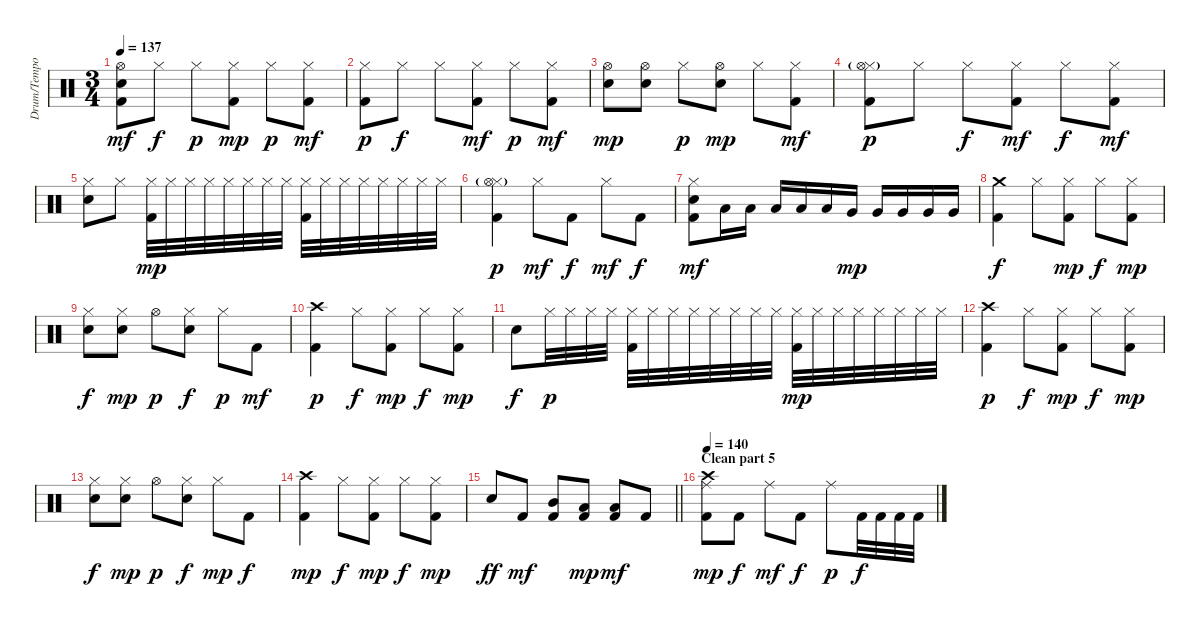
\track ("Drum/Tempo" "Drum/Tempo") {instrument percussion}
\staff {score}
\articulation defaults
\ts (3 4)
\tempo 137
\clef neutral
\ks c
("Kick (hit) 2" "Electric Snare (hit)" "Hi-Hat (open)").8{dy mf} "Hi-Hat (closed)".8{dy f} "Hi-Hat (closed)".8{dy p} ("Kick (hit) 2" "Hi-Hat (closed)").8{dy mp} "Hi-Hat (closed)".8{dy p} ("Kick (hit) 2" "Hi-Hat (closed)").8{dy mf} |
("Kick (hit) 2" "Hi-Hat (closed)").8{dy p} "Hi-Hat (closed)".8{dy f} "Hi-Hat (closed)".8 ("Kick (hit) 2" "Hi-Hat (closed)").8{dy mf} "Hi-Hat (closed)".8{dy p} ("Kick (hit) 2" "Hi-Hat (closed)").8{dy mf} |
("Electric Snare (hit)" "Hi-Hat (open)").8{dy mp} ("Electric Snare (hit)" "Hi-Hat (open)").8 "Hi-Hat (closed)".8{dy p} ("Electric Snare (hit)" "Hi-Hat (open)").8{dy mp} "Hi-Hat (closed)".8 ("Kick (hit) 2" "Hi-Hat (closed)").8{dy mf} |
("Kick (hit) 2" "Hi-Hat (closed)" "Hi-Hat (open)"{g}).8{dy p} "Hi-Hat (closed)".8 "Hi-Hat (closed)".8{dy f} ("Kick (hit) 2" "Hi-Hat (closed)").8{dy mf} "Hi-Hat (closed)".8{dy f} ("Kick (hit) 2" "Hi-Hat (closed)").8{dy mf} |
("Electric Snare (hit)" "Hi-Hat (closed)").8 "Hi-Hat (closed)".8 ("Kick (hit) 2" "Hi-Hat (closed)").32{dy mp} "Hi-Hat (closed)".32 "Hi-Hat (closed)".32 "Hi-Hat (closed)".32 "Hi-Hat (closed)".32 "Hi-Hat (closed)".32 "Hi-Hat (closed)".32 "Hi-Hat (closed)".32 ("Kick (hit) 2" "Hi-Hat (closed)").32 "Hi-Hat (closed)".32 "Hi-Hat (closed)".32 "Hi-Hat (closed)".32 "Hi-Hat (closed)".32 "Hi-Hat (closed)".32 "Hi-Hat (closed)".32 "Hi-Hat (closed)".32 |
("Kick (hit) 2" "Hi-Hat (closed)" "Hi-Hat (open)"{g}).4{dy p} "Hi-Hat (closed)".8{dy mf} "Kick (hit) 2".8{dy f} "Hi-Hat (closed)".8{dy mf} "Kick (hit) 2".8{dy f} |
("Kick (hit) 2" "Electric Snare (hit)" "Hi-Hat (closed)").8{dy mf} "Low Tom (hit)".16 "Low Tom (hit)".16 "Low Tom (hit)".16 "Low Tom (hit)".16 "Low Tom (hit)".16 "Very Low Tom (hit)".16{dy mp} "Very Low Tom (hit)".16 "Very Low Tom (hit)".16 "Very Low Tom (hit)".16 "Very Low Tom (hit)".16 |
("Kick (hit) 2" "Crash medium (hit)").4{dy f} "Hi-Hat (closed)".8 ("Kick (hit) 2" "Hi-Hat (closed)").8{dy mp} "Hi-Hat (closed)".8{dy f} ("Kick (hit) 2" "Hi-Hat (closed)").8{dy mp} |
("Electric Snare (hit)" "Hi-Hat (closed)").8{dy f} ("Electric Snare (hit)" "Hi-Hat (closed)").8{dy mp} "Hi-Hat (open)".8{dy p} ("Electric Snare (hit)" "Hi-Hat (closed)").8{dy f} "Hi-Hat (closed)".8{dy p} "Kick (hit) 2".8{dy mf} |
("Kick (hit) 2" "Crash high (hit)").4{dy p} "Hi-Hat (closed)".8{dy f} ("Kick (hit) 2" "Hi-Hat (closed)").8{dy mp} "Hi-Hat (closed)".8{dy f} ("Kick (hit) 2" "Hi-Hat (closed)").8{dy mp} |
"Electric Snare (hit)".8{dy f} "Hi-Hat (closed)".32{dy p} "Hi-Hat (closed)".32 "Hi-Hat (closed)".32 "Hi-Hat (closed)".32 ("Kick (hit) 2" "Hi-Hat (closed)").32 "Hi-Hat (closed)".32 "Hi-Hat (closed)".32 "Hi-Hat (closed)".32 "Hi-Hat (closed)".32 "Hi-Hat (closed)".32 "Hi-Hat (closed)".32 "Hi-Hat (closed)".32 ("Kick (hit) 2" "Hi-Hat (closed)").32{dy mp} "Hi-Hat (closed)".32 "Hi-Hat (closed)".32 "Hi-Hat (closed)".32 "Hi-Hat (closed)".32 "Hi-Hat (closed)".32 "Hi-Hat (closed)".32 "Hi-Hat (closed)".32 |
("Kick (hit) 2" "Crash high (hit)").4{dy p} "Hi-Hat (closed)".8{dy f} ("Kick (hit) 2" "Hi-Hat (closed)").8{dy mp} "Hi-Hat (closed)".8{dy f} ("Kick (hit) 2" "Hi-Hat (closed)").8{dy mp} |
("Electric Snare (hit)" "Hi-Hat (closed)").8{dy f} ("Electric Snare (hit)" "Hi-Hat (closed)").8{dy mp} "Hi-Hat (open)".8{dy p} ("Electric Snare (hit)" "Hi-Hat (closed)").8{dy f} "Hi-Hat (closed)".8{dy mp} "Kick (hit) 2".8{dy f} |
("Kick (hit) 2" "Crash high (hit)").4{dy mp} "Hi-Hat (closed)".8{dy f} ("Kick (hit) 2" "Hi-Hat (closed)").8{dy mp} "Hi-Hat (closed)".8{dy f} ("Kick (hit) 2" "Hi-Hat (closed)").8{dy mp} |
\barLineRight lightlight "Electric Snare (hit)".8{dy ff} "Kick (hit) 2".8{dy mf}
("Kick (hit) 2" "Mid Tom (hit)").8 ("Kick (hit) 2" "Low Tom (hit)").8{dy mp} ("Kick (hit) 2" "Low Floor Tom (hit)").8{dy mf} "Kick (hit) 2".8 |
\section ("" "Clean part 5")
\tempo 140
("Kick (hit) 2" "Ride (middle)" "Crash high (hit)").8{dy mp} "Kick (hit) 2".8{dy f} "Ride (middle)".8{dy mf} "Kick (hit) 2".8{dy f} "Ride (middle)".8{dy p} "Kick (hit) 2".32{dy f} "Kick (hit) 2".32 "Kick (hit) 2".32 "Kick (hit) 2".32
